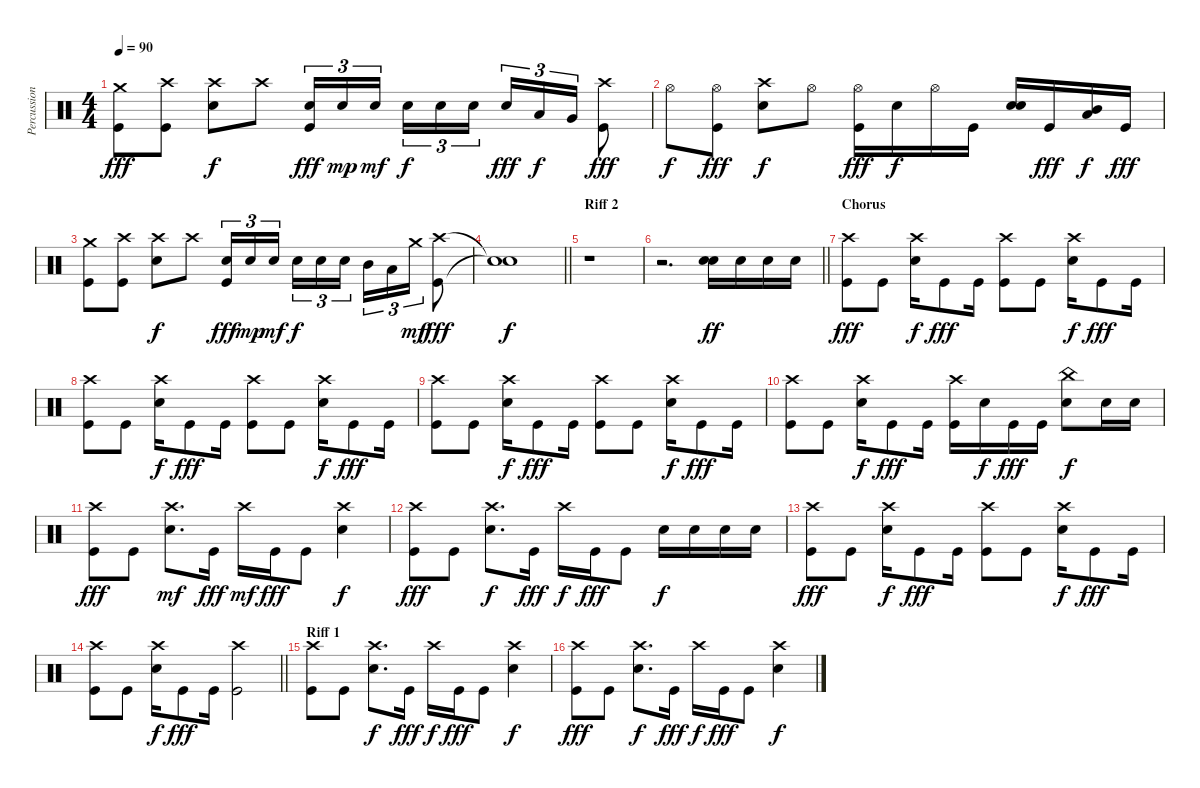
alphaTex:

\track ("Percussion" "Percussion") {instrument percussion}
\staff {score}
\articulation defaults
\ts (4 4)
\tempo 90
\clef neutral
\ks c
("Crash medium (hit)" "Kick (hit)").8{dy fff} ("Crash high (hit)" "Kick (hit)").8 ("Crash high (hit)" "Electric Snare (hit)").8{dy f} "Crash high (hit)".8 ("Electric Snare (hit)" "Kick (hit)").16{tu (3 2) dy fff} "Electric Snare (hit)".16{tu (3 2) dy mp} "Electric Snare (hit)".16{tu (3 2) dy mf beam splitsecondary} "Electric Snare (hit)".16{tu (3 2) dy f} "Electric Snare (hit)".16{tu (3 2)} "Electric Snare (hit)".16{tu (3 2)} "Electric Snare (hit)".16{tu (3 2) dy fff} "Low Tom (hit)".16{tu (3 2) dy f} "Very Low Tom (hit)".16{tu (3 2)} ("Crash high (hit)" "Kick (hit)").8{dy fff} |
"Hi-Hat (open)".8{dy f} ("Hi-Hat (open)" "Kick (hit)").8{dy fff} ("Crash high (hit)" "Electric Snare (hit)").8{dy f} "Hi-Hat (open)".8 ("Hi-Hat (open)" "Kick (hit)").16{dy fff} "Electric Snare (hit)".16{dy f} "Hi-Hat (open)".16 "Kick (hit)".16 ("Electric Snare (hit)" "Electric Snare (hit)").16{bd 60} "Kick (hit)".16{dy fff} ("Mid Tom (hit)" "Low Tom (hit)").16{bd 60 dy f} "Kick (hit)".16{dy fff} |
("Crash medium (hit)" "Kick (hit)").8 ("Crash high (hit)" "Kick (hit)").8 ("Crash high (hit)" "Electric Snare (hit)").8{dy f} "Crash high (hit)".8 ("Electric Snare (hit)" "Kick (hit)").16{tu (3 2) dy fff} "Electric Snare (hit)".16{tu (3 2) dy mp} "Electric Snare (hit)".16{tu (3 2) dy mf beam splitsecondary} "Electric Snare (hit)".16{tu (3 2) dy f} "Electric Snare (hit)".16{tu (3 2)} "Electric Snare (hit)".16{tu (3 2)} "Mid Tom (hit)".16{tu (3 2)} "Low Tom (hit)".16{tu (3 2)} "Crash medium (hit)".16{tu (3 2) dy mf} ("Crash high (hit)" "Kick (hit)").8{dy fff} |
\barLineRight lightlight
("Snare (hit)"{t} "Snare (hit)"{t}).1{dy f} |
\section ("" "Riff 2")
r.1 |
\barLineRight lightlight
r.2{d} ("Electric Snare (hit)" "Electric Snare (hit)").16{bd 60 dy ff} "Electric Snare (hit)".16 "Electric Snare (hit)".16 "Electric Snare (hit)".16 |
\section ("" "Chorus")
("Crash high (hit)" "Kick (hit)").8{dy fff} "Kick (hit)".8 ("Crash high (hit)" "Electric Snare (hit)").16{dy f} "Kick (hit)".8{dy fff} "Kick (hit)".16 ("Crash high (hit)" "Kick (hit)").8 "Kick (hit)".8 ("Crash high (hit)" "Electric Snare (hit)").16{dy f} "Kick (hit)".8{dy fff} "Kick (hit)".16 |
("Crash high (hit)" "Kick (hit)").8 "Kick (hit)".8 ("Crash high (hit)" "Electric Snare (hit)").16{dy f} "Kick (hit)".8{dy fff} "Kick (hit)".16 ("Crash high (hit)" "Kick (hit)").8 "Kick (hit)".8 ("Crash high (hit)" "Electric Snare (hit)").16{dy f} "Kick (hit)".8{dy fff} "Kick (hit)".16 |
("Crash high (hit)" "Kick (hit)").8 "Kick (hit)".8 ("Crash high (hit)" "Electric Snare (hit)").16{dy f} "Kick (hit)".8{dy fff} "Kick (hit)".16 ("Crash high (hit)" "Kick (hit)").8 "Kick (hit)".8 ("Crash high (hit)" "Electric Snare (hit)").16{dy f} "Kick (hit)".8{dy fff} "Kick (hit)".16 |
("Crash high (hit)" "Kick (hit)").8 "Kick (hit)".8 ("Crash high (hit)" "Electric Snare (hit)").16{dy f} "Kick (hit)".8{dy fff} "Kick (hit)".16 ("Crash high (hit)" "Kick (hit)").16 "Electric Snare (hit)".16{dy f} "Kick (hit)".16{dy fff} "Kick (hit)".16 ("China (hit)" "Electric Snare (hit)").8{dy f} "Electric Snare (hit)".16 "Electric Snare (hit)".16 |
("Crash high (hit)" "Kick (hit)").8{dy fff} "Kick (hit)".8 ("Crash high (hit)" "Electric Snare (hit)").8{d dy mf} "Kick (hit)".16{dy fff} "Crash high (hit)".16{dy mf} "Kick (hit)".16{dy fff} "Kick (hit)".8 ("Crash high (hit)" "Electric Snare (hit)").4{dy f} |
("Crash high (hit)" "Kick (hit)").8{dy fff} "Kick (hit)".8 ("Crash high (hit)" "Electric Snare (hit)").8{d dy f} "Kick (hit)".16{dy fff} "Crash high (hit)".16{dy f} "Kick (hit)".16{dy fff} "Kick (hit)".8 "Electric Snare (hit)".16{dy f} "Electric Snare (hit)".16 "Electric Snare (hit)".16 "Electric Snare (hit)".16 |
("Crash high (hit)" "Kick (hit)").8{dy fff} "Kick (hit)".8 ("Crash high (hit)" "Electric Snare (hit)").16{dy f} "Kick (hit)".8{dy fff} "Kick (hit)".16 ("Crash high (hit)" "Kick (hit)").8 "Kick (hit)".8 ("Crash high (hit)" "Electric Snare (hit)").16{dy f} "Kick (hit)".8{dy fff} "Kick (hit)".16 |
\barLineRight lightlight
("Crash high (hit)" "Kick (hit)").8 "Kick (hit)".8 ("Crash high (hit)" "Electric Snare (hit)").16{dy f} "Kick (hit)".8{dy fff} "Kick (hit)".16 ("Crash high (hit)" "Kick (hit)").2 |
\section ("" "Riff 1")
("Crash high (hit)" "Kick (hit)").8 "Kick (hit)".8 ("Crash high (hit)" "Electric Snare (hit)").8{d dy f} "Kick (hit)".16{dy fff} "Crash high (hit)".16{dy f} "Kick (hit)".16{dy fff} "Kick (hit)".8 ("Crash high (hit)" "Electric Snare (hit)").4{dy f} |
("Crash high (hit)" "Kick (hit)").8{dy fff} "Kick (hit)".8 ("Crash high (hit)" "Electric Snare (hit)").8{d dy f} "Kick (hit)".16{dy fff} "Crash high (hit)".16{dy f} "Kick (hit)".16{dy fff} "Kick (hit)".8 ("Crash high (hit)" "Electric Snare (hit)").4{dy f}
